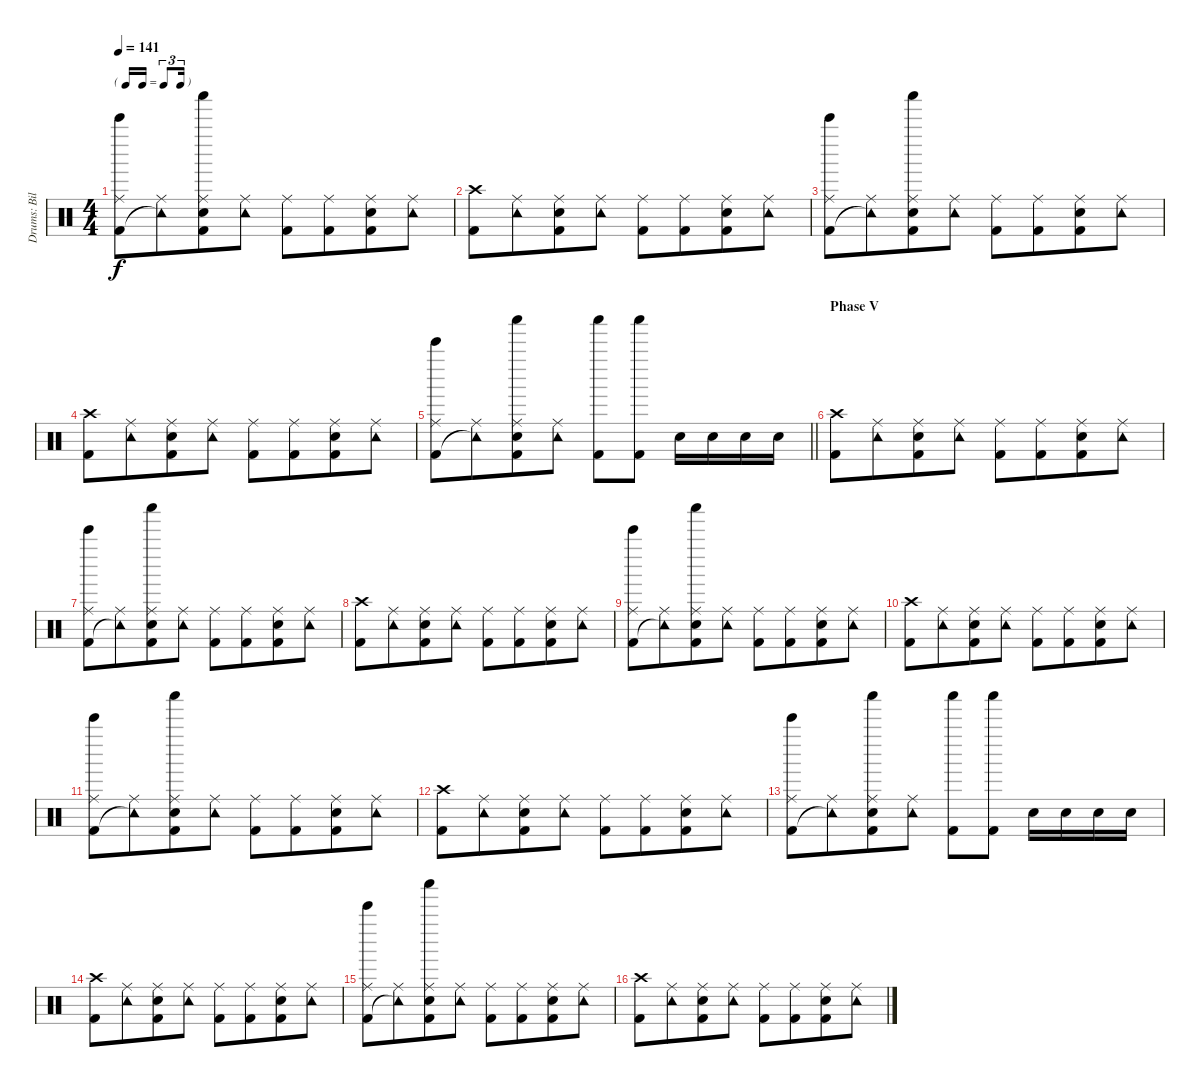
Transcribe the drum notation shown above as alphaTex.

\track ("Drums: Bill" "Drums: Bil") {instrument percussion}
\staff {score}
\articulation defaults
\ts (4 4)
\tf triplet16th
\tempo 141
\clef neutral
\ks c
("Ride (middle)" "Kick (hit) 2" "Bell Tree (hit)").8{dy f} ("Ride (middle)" "Tambourine (hit)"{t}).8{beam merge} ("Ride (middle)" "Electric Snare (hit)" "Kick (hit) 2" "Shaker (hit)").8 ("Ride (middle)" "Tambourine (hit)").8 ("Ride (middle)" "Kick (hit) 2").8 ("Ride (middle)" "Kick (hit) 2").8{beam merge} ("Ride (middle)" "Electric Snare (hit)" "Kick (hit) 2").8 ("Ride (middle)" "Tambourine (hit)").8 |
("Crash high (hit)" "Kick (hit) 2").8 ("Ride (middle)" "Tambourine (hit)").8{beam merge} ("Ride (middle)" "Electric Snare (hit)" "Kick (hit) 2").8 ("Ride (middle)" "Tambourine (hit)").8 ("Ride (middle)" "Kick (hit) 2").8 ("Ride (middle)" "Kick (hit) 2").8{beam merge} ("Ride (middle)" "Electric Snare (hit)" "Kick (hit) 2").8 ("Ride (middle)" "Tambourine (hit)").8 |
("Ride (middle)" "Kick (hit) 2" "Bell Tree (hit)").8 ("Ride (middle)" "Tambourine (hit)"{t}).8{beam merge} ("Ride (middle)" "Electric Snare (hit)" "Kick (hit) 2" "Shaker (hit)").8 ("Ride (middle)" "Tambourine (hit)").8 ("Ride (middle)" "Kick (hit) 2").8 ("Ride (middle)" "Kick (hit) 2").8{beam merge} ("Ride (middle)" "Electric Snare (hit)" "Kick (hit) 2").8 ("Ride (middle)" "Tambourine (hit)").8 |
("Crash high (hit)" "Kick (hit) 2").8 ("Ride (middle)" "Tambourine (hit)").8{beam merge} ("Ride (middle)" "Electric Snare (hit)" "Kick (hit) 2").8 ("Ride (middle)" "Tambourine (hit)").8 ("Ride (middle)" "Kick (hit) 2").8 ("Ride (middle)" "Kick (hit) 2").8{beam merge} ("Ride (middle)" "Electric Snare (hit)" "Kick (hit) 2").8 ("Ride (middle)" "Tambourine (hit)").8 |
\barLineRight lightlight
("Ride (middle)" "Kick (hit) 2" "Bell Tree (hit)").8 ("Ride (middle)" "Tambourine (hit)"{t}).8{beam merge} ("Ride (middle)" "Electric Snare (hit)" "Kick (hit) 2" "Shaker (hit)").8 ("Ride (middle)" "Tambourine (hit)").8 ("Shaker (hit)" "Kick (hit) 2").8 ("Shaker (hit)" "Kick (hit) 2").8 "Electric Snare (hit)".16 "Electric Snare (hit)".16 "Electric Snare (hit)".16 "Electric Snare (hit)".16 |
\section ("" "Phase V")
("Crash high (hit)" "Kick (hit) 2").8 ("Ride (middle)" "Tambourine (hit)").8{beam merge} ("Ride (middle)" "Electric Snare (hit)" "Kick (hit) 2").8 ("Ride (middle)" "Tambourine (hit)").8 ("Ride (middle)" "Kick (hit) 2").8 ("Ride (middle)" "Kick (hit) 2").8{beam merge} ("Ride (middle)" "Electric Snare (hit)" "Kick (hit) 2").8 ("Ride (middle)" "Tambourine (hit)").8 |
("Ride (middle)" "Kick (hit) 2" "Bell Tree (hit)").8 ("Ride (middle)" "Tambourine (hit)"{t}).8{beam merge} ("Ride (middle)" "Electric Snare (hit)" "Kick (hit) 2" "Shaker (hit)").8 ("Ride (middle)" "Tambourine (hit)").8 ("Ride (middle)" "Kick (hit) 2").8 ("Ride (middle)" "Kick (hit) 2").8{beam merge} ("Ride (middle)" "Electric Snare (hit)" "Kick (hit) 2").8 ("Ride (middle)" "Tambourine (hit)").8 |
("Crash high (hit)" "Kick (hit) 2").8 ("Ride (middle)" "Tambourine (hit)").8{beam merge} ("Ride (middle)" "Electric Snare (hit)" "Kick (hit) 2").8 ("Ride (middle)" "Tambourine (hit)").8 ("Ride (middle)" "Kick (hit) 2").8 ("Ride (middle)" "Kick (hit) 2").8{beam merge} ("Ride (middle)" "Electric Snare (hit)" "Kick (hit) 2").8 ("Ride (middle)" "Tambourine (hit)").8 |
("Ride (middle)" "Kick (hit) 2" "Bell Tree (hit)").8 ("Ride (middle)" "Tambourine (hit)"{t}).8{beam merge} ("Ride (middle)" "Electric Snare (hit)" "Kick (hit) 2" "Shaker (hit)").8 ("Ride (middle)" "Tambourine (hit)").8 ("Ride (middle)" "Kick (hit) 2").8 ("Ride (middle)" "Kick (hit) 2").8{beam merge} ("Ride (middle)" "Electric Snare (hit)" "Kick (hit) 2").8 ("Ride (middle)" "Tambourine (hit)").8 |
("Crash high (hit)" "Kick (hit) 2").8 ("Ride (middle)" "Tambourine (hit)").8{beam merge} ("Ride (middle)" "Electric Snare (hit)" "Kick (hit) 2").8 ("Ride (middle)" "Tambourine (hit)").8 ("Ride (middle)" "Kick (hit) 2").8 ("Ride (middle)" "Kick (hit) 2").8{beam merge} ("Ride (middle)" "Electric Snare (hit)" "Kick (hit) 2").8 ("Ride (middle)" "Tambourine (hit)").8 |
("Ride (middle)" "Kick (hit) 2" "Bell Tree (hit)").8 ("Ride (middle)" "Tambourine (hit)"{t}).8{beam merge} ("Ride (middle)" "Electric Snare (hit)" "Kick (hit) 2" "Shaker (hit)").8 ("Ride (middle)" "Tambourine (hit)").8 ("Ride (middle)" "Kick (hit) 2").8 ("Ride (middle)" "Kick (hit) 2").8{beam merge} ("Ride (middle)" "Electric Snare (hit)" "Kick (hit) 2").8 ("Ride (middle)" "Tambourine (hit)").8 |
("Crash high (hit)" "Kick (hit) 2").8 ("Ride (middle)" "Tambourine (hit)").8{beam merge} ("Ride (middle)" "Electric Snare (hit)" "Kick (hit) 2").8 ("Ride (middle)" "Tambourine (hit)").8 ("Ride (middle)" "Kick (hit) 2").8 ("Ride (middle)" "Kick (hit) 2").8{beam merge} ("Ride (middle)" "Electric Snare (hit)" "Kick (hit) 2").8 ("Ride (middle)" "Tambourine (hit)").8 |
("Ride (middle)" "Kick (hit) 2" "Bell Tree (hit)").8 ("Ride (middle)" "Tambourine (hit)"{t}).8{beam merge} ("Ride (middle)" "Electric Snare (hit)" "Kick (hit) 2" "Shaker (hit)").8 ("Ride (middle)" "Tambourine (hit)").8 ("Shaker (hit)" "Kick (hit) 2").8 ("Shaker (hit)" "Kick (hit) 2").8 "Electric Snare (hit)".16 "Electric Snare (hit)".16 "Electric Snare (hit)".16 "Electric Snare (hit)".16 |
("Crash high (hit)" "Kick (hit) 2").8 ("Ride (middle)" "Tambourine (hit)").8{beam merge} ("Ride (middle)" "Electric Snare (hit)" "Kick (hit) 2").8 ("Ride (middle)" "Tambourine (hit)").8 ("Ride (middle)" "Kick (hit) 2").8 ("Ride (middle)" "Kick (hit) 2").8{beam merge} ("Ride (middle)" "Electric Snare (hit)" "Kick (hit) 2").8 ("Ride (middle)" "Tambourine (hit)").8 |
("Ride (middle)" "Kick (hit) 2" "Bell Tree (hit)").8 ("Ride (middle)" "Tambourine (hit)"{t}).8{beam merge} ("Ride (middle)" "Electric Snare (hit)" "Kick (hit) 2" "Shaker (hit)").8 ("Ride (middle)" "Tambourine (hit)").8 ("Ride (middle)" "Kick (hit) 2").8 ("Ride (middle)" "Kick (hit) 2").8{beam merge} ("Ride (middle)" "Electric Snare (hit)" "Kick (hit) 2").8 ("Ride (middle)" "Tambourine (hit)").8 |
("Crash high (hit)" "Kick (hit) 2").8 ("Ride (middle)" "Tambourine (hit)").8{beam merge} ("Ride (middle)" "Electric Snare (hit)" "Kick (hit) 2").8 ("Ride (middle)" "Tambourine (hit)").8 ("Ride (middle)" "Kick (hit) 2").8 ("Ride (middle)" "Kick (hit) 2").8{beam merge} ("Ride (middle)" "Electric Snare (hit)" "Kick (hit) 2").8 ("Ride (middle)" "Tambourine (hit)").8
